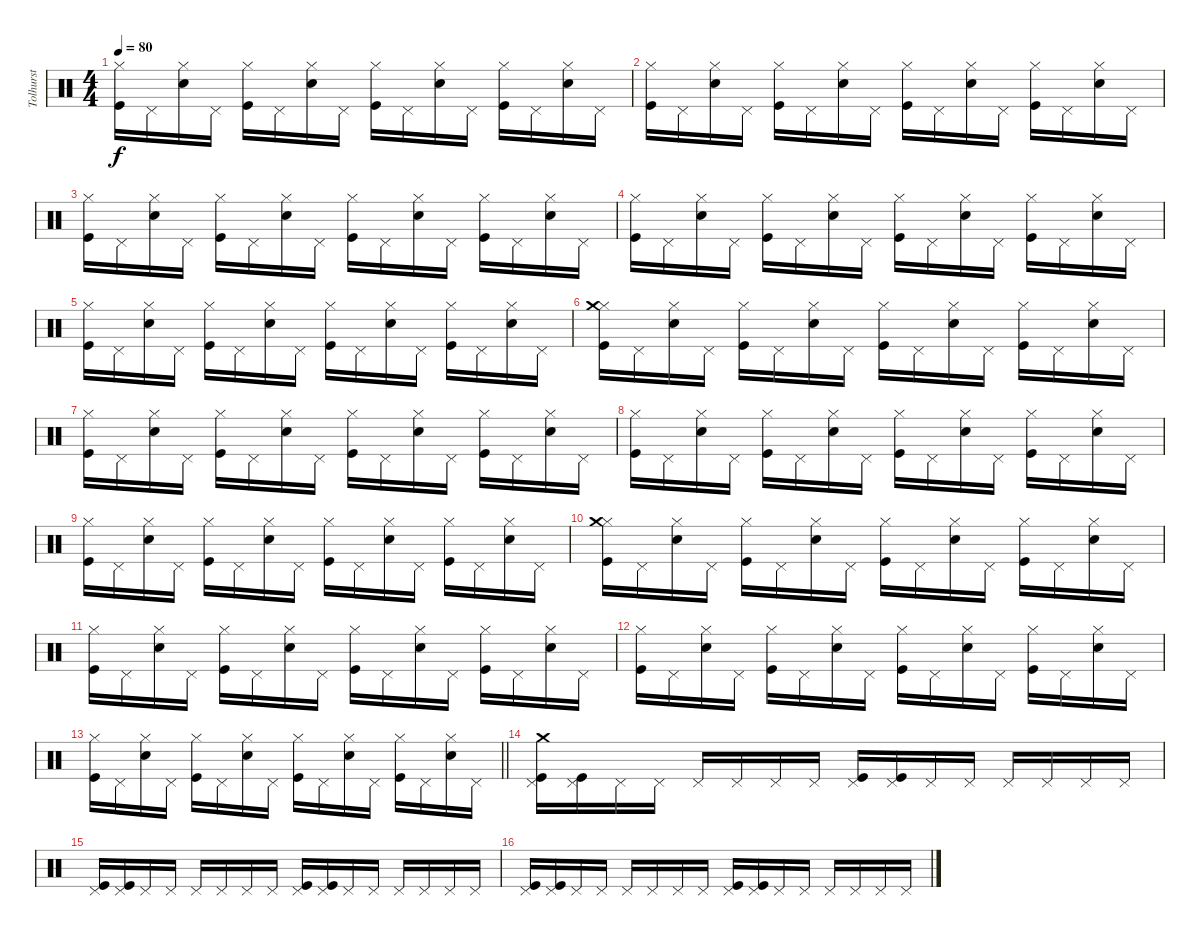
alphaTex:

\track ("Tolhurst" "Tolhurst") {instrument percussion}
\staff {score}
\articulation defaults
\ts (4 4)
\tempo 80
\clef neutral
\ks c
("Kick (hit)" "Hi-Hat (closed)").16{dy f} "Pedal Hi-Hat (hit)".16 ("Snare (hit) 2" "Hi-Hat (closed)").16 "Pedal Hi-Hat (hit)".16 ("Kick (hit)" "Hi-Hat (closed)").16 "Pedal Hi-Hat (hit)".16 ("Snare (hit) 2" "Hi-Hat (closed)").16 "Pedal Hi-Hat (hit)".16 ("Kick (hit)" "Hi-Hat (closed)").16 "Pedal Hi-Hat (hit)".16 ("Snare (hit) 2" "Hi-Hat (closed)").16 "Pedal Hi-Hat (hit)".16 ("Kick (hit)" "Hi-Hat (closed)").16 "Pedal Hi-Hat (hit)".16 ("Snare (hit) 2" "Hi-Hat (closed)").16 "Pedal Hi-Hat (hit)".16 |
("Kick (hit)" "Hi-Hat (closed)").16 "Pedal Hi-Hat (hit)".16 ("Snare (hit) 2" "Hi-Hat (closed)").16 "Pedal Hi-Hat (hit)".16 ("Kick (hit)" "Hi-Hat (closed)").16 "Pedal Hi-Hat (hit)".16 ("Snare (hit) 2" "Hi-Hat (closed)").16 "Pedal Hi-Hat (hit)".16 ("Kick (hit)" "Hi-Hat (closed)").16 "Pedal Hi-Hat (hit)".16 ("Snare (hit) 2" "Hi-Hat (closed)").16 "Pedal Hi-Hat (hit)".16 ("Kick (hit)" "Hi-Hat (closed)").16 "Pedal Hi-Hat (hit)".16 ("Snare (hit) 2" "Hi-Hat (closed)").16 "Pedal Hi-Hat (hit)".16 |
("Kick (hit)" "Hi-Hat (closed)").16 "Pedal Hi-Hat (hit)".16 ("Snare (hit) 2" "Hi-Hat (closed)").16 "Pedal Hi-Hat (hit)".16 ("Kick (hit)" "Hi-Hat (closed)").16 "Pedal Hi-Hat (hit)".16 ("Snare (hit) 2" "Hi-Hat (closed)").16 "Pedal Hi-Hat (hit)".16 ("Kick (hit)" "Hi-Hat (closed)").16 "Pedal Hi-Hat (hit)".16 ("Snare (hit) 2" "Hi-Hat (closed)").16 "Pedal Hi-Hat (hit)".16 ("Kick (hit)" "Hi-Hat (closed)").16 "Pedal Hi-Hat (hit)".16 ("Snare (hit) 2" "Hi-Hat (closed)").16 "Pedal Hi-Hat (hit)".16 |
("Kick (hit)" "Hi-Hat (closed)").16 "Pedal Hi-Hat (hit)".16 ("Snare (hit) 2" "Hi-Hat (closed)").16 "Pedal Hi-Hat (hit)".16 ("Kick (hit)" "Hi-Hat (closed)").16 "Pedal Hi-Hat (hit)".16 ("Snare (hit) 2" "Hi-Hat (closed)").16 "Pedal Hi-Hat (hit)".16 ("Kick (hit)" "Hi-Hat (closed)").16 "Pedal Hi-Hat (hit)".16 ("Snare (hit) 2" "Hi-Hat (closed)").16 "Pedal Hi-Hat (hit)".16 ("Kick (hit)" "Hi-Hat (closed)").16 "Pedal Hi-Hat (hit)".16 ("Snare (hit) 2" "Hi-Hat (closed)").16 "Pedal Hi-Hat (hit)".16 |
("Kick (hit)" "Hi-Hat (closed)").16 "Pedal Hi-Hat (hit)".16 ("Snare (hit) 2" "Hi-Hat (closed)").16 "Pedal Hi-Hat (hit)".16 ("Kick (hit)" "Hi-Hat (closed)").16 "Pedal Hi-Hat (hit)".16 ("Snare (hit) 2" "Hi-Hat (closed)").16 "Pedal Hi-Hat (hit)".16 ("Kick (hit)" "Hi-Hat (closed)").16 "Pedal Hi-Hat (hit)".16 ("Snare (hit) 2" "Hi-Hat (closed)").16 "Pedal Hi-Hat (hit)".16 ("Kick (hit)" "Hi-Hat (closed)").16 "Pedal Hi-Hat (hit)".16 ("Snare (hit) 2" "Hi-Hat (closed)").16 "Pedal Hi-Hat (hit)".16 |
("Kick (hit)" "Hi-Hat (closed)" "Crash medium (hit)").16 "Pedal Hi-Hat (hit)".16 ("Snare (hit) 2" "Hi-Hat (closed)").16 "Pedal Hi-Hat (hit)".16 ("Kick (hit)" "Hi-Hat (closed)").16 "Pedal Hi-Hat (hit)".16 ("Snare (hit) 2" "Hi-Hat (closed)").16 "Pedal Hi-Hat (hit)".16 ("Kick (hit)" "Hi-Hat (closed)").16 "Pedal Hi-Hat (hit)".16 ("Snare (hit) 2" "Hi-Hat (closed)").16 "Pedal Hi-Hat (hit)".16 ("Kick (hit)" "Hi-Hat (closed)").16 "Pedal Hi-Hat (hit)".16 ("Snare (hit) 2" "Hi-Hat (closed)").16 "Pedal Hi-Hat (hit)".16 |
("Kick (hit)" "Hi-Hat (closed)").16 "Pedal Hi-Hat (hit)".16 ("Snare (hit) 2" "Hi-Hat (closed)").16 "Pedal Hi-Hat (hit)".16 ("Kick (hit)" "Hi-Hat (closed)").16 "Pedal Hi-Hat (hit)".16 ("Snare (hit) 2" "Hi-Hat (closed)").16 "Pedal Hi-Hat (hit)".16 ("Kick (hit)" "Hi-Hat (closed)").16 "Pedal Hi-Hat (hit)".16 ("Snare (hit) 2" "Hi-Hat (closed)").16 "Pedal Hi-Hat (hit)".16 ("Kick (hit)" "Hi-Hat (closed)").16 "Pedal Hi-Hat (hit)".16 ("Snare (hit) 2" "Hi-Hat (closed)").16 "Pedal Hi-Hat (hit)".16 |
("Kick (hit)" "Hi-Hat (closed)").16 "Pedal Hi-Hat (hit)".16 ("Snare (hit) 2" "Hi-Hat (closed)").16 "Pedal Hi-Hat (hit)".16 ("Kick (hit)" "Hi-Hat (closed)").16 "Pedal Hi-Hat (hit)".16 ("Snare (hit) 2" "Hi-Hat (closed)").16 "Pedal Hi-Hat (hit)".16 ("Kick (hit)" "Hi-Hat (closed)").16 "Pedal Hi-Hat (hit)".16 ("Snare (hit) 2" "Hi-Hat (closed)").16 "Pedal Hi-Hat (hit)".16 ("Kick (hit)" "Hi-Hat (closed)").16 "Pedal Hi-Hat (hit)".16 ("Snare (hit) 2" "Hi-Hat (closed)").16 "Pedal Hi-Hat (hit)".16 |
("Kick (hit)" "Hi-Hat (closed)").16 "Pedal Hi-Hat (hit)".16 ("Snare (hit) 2" "Hi-Hat (closed)").16 "Pedal Hi-Hat (hit)".16 ("Kick (hit)" "Hi-Hat (closed)").16 "Pedal Hi-Hat (hit)".16 ("Snare (hit) 2" "Hi-Hat (closed)").16 "Pedal Hi-Hat (hit)".16 ("Kick (hit)" "Hi-Hat (closed)").16 "Pedal Hi-Hat (hit)".16 ("Snare (hit) 2" "Hi-Hat (closed)").16 "Pedal Hi-Hat (hit)".16 ("Kick (hit)" "Hi-Hat (closed)").16 "Pedal Hi-Hat (hit)".16 ("Snare (hit) 2" "Hi-Hat (closed)").16 "Pedal Hi-Hat (hit)".16 |
("Kick (hit)" "Hi-Hat (closed)" "Crash medium (hit)").16 "Pedal Hi-Hat (hit)".16 ("Snare (hit) 2" "Hi-Hat (closed)").16 "Pedal Hi-Hat (hit)".16 ("Kick (hit)" "Hi-Hat (closed)").16 "Pedal Hi-Hat (hit)".16 ("Snare (hit) 2" "Hi-Hat (closed)").16 "Pedal Hi-Hat (hit)".16 ("Kick (hit)" "Hi-Hat (closed)").16 "Pedal Hi-Hat (hit)".16 ("Snare (hit) 2" "Hi-Hat (closed)").16 "Pedal Hi-Hat (hit)".16 ("Kick (hit)" "Hi-Hat (closed)").16 "Pedal Hi-Hat (hit)".16 ("Snare (hit) 2" "Hi-Hat (closed)").16 "Pedal Hi-Hat (hit)".16 |
("Kick (hit)" "Hi-Hat (closed)").16 "Pedal Hi-Hat (hit)".16 ("Snare (hit) 2" "Hi-Hat (closed)").16 "Pedal Hi-Hat (hit)".16 ("Kick (hit)" "Hi-Hat (closed)").16 "Pedal Hi-Hat (hit)".16 ("Snare (hit) 2" "Hi-Hat (closed)").16 "Pedal Hi-Hat (hit)".16 ("Kick (hit)" "Hi-Hat (closed)").16 "Pedal Hi-Hat (hit)".16 ("Snare (hit) 2" "Hi-Hat (closed)").16 "Pedal Hi-Hat (hit)".16 ("Kick (hit)" "Hi-Hat (closed)").16 "Pedal Hi-Hat (hit)".16 ("Snare (hit) 2" "Hi-Hat (closed)").16 "Pedal Hi-Hat (hit)".16 |
("Kick (hit)" "Hi-Hat (closed)").16 "Pedal Hi-Hat (hit)".16 ("Snare (hit) 2" "Hi-Hat (closed)").16 "Pedal Hi-Hat (hit)".16 ("Kick (hit)" "Hi-Hat (closed)").16 "Pedal Hi-Hat (hit)".16 ("Snare (hit) 2" "Hi-Hat (closed)").16 "Pedal Hi-Hat (hit)".16 ("Kick (hit)" "Hi-Hat (closed)").16 "Pedal Hi-Hat (hit)".16 ("Snare (hit) 2" "Hi-Hat (closed)").16 "Pedal Hi-Hat (hit)".16 ("Kick (hit)" "Hi-Hat (closed)").16 "Pedal Hi-Hat (hit)".16 ("Snare (hit) 2" "Hi-Hat (closed)").16 "Pedal Hi-Hat (hit)".16 |
\barLineRight lightlight
("Kick (hit)" "Hi-Hat (closed)").16 "Pedal Hi-Hat (hit)".16 ("Snare (hit) 2" "Hi-Hat (closed)").16 "Pedal Hi-Hat (hit)".16 ("Kick (hit)" "Hi-Hat (closed)").16 "Pedal Hi-Hat (hit)".16 ("Snare (hit) 2" "Hi-Hat (closed)").16 "Pedal Hi-Hat (hit)".16 ("Kick (hit)" "Hi-Hat (closed)").16 "Pedal Hi-Hat (hit)".16 ("Snare (hit) 2" "Hi-Hat (closed)").16 "Pedal Hi-Hat (hit)".16 ("Kick (hit)" "Hi-Hat (closed)").16 "Pedal Hi-Hat (hit)".16 ("Snare (hit) 2" "Hi-Hat (closed)").16 "Pedal Hi-Hat (hit)".16 |
("Pedal Hi-Hat (hit)" "Kick (hit)" "Crash medium (hit)").16 ("Pedal Hi-Hat (hit)" "Kick (hit)").16 "Pedal Hi-Hat (hit)".16 "Pedal Hi-Hat (hit)".16 "Pedal Hi-Hat (hit)".16 "Pedal Hi-Hat (hit)".16 "Pedal Hi-Hat (hit)".16 "Pedal Hi-Hat (hit)".16 ("Pedal Hi-Hat (hit)" "Kick (hit)").16 ("Pedal Hi-Hat (hit)" "Kick (hit)").16 "Pedal Hi-Hat (hit)".16 "Pedal Hi-Hat (hit)".16 "Pedal Hi-Hat (hit)".16 "Pedal Hi-Hat (hit)".16 "Pedal Hi-Hat (hit)".16 "Pedal Hi-Hat (hit)".16 |
("Pedal Hi-Hat (hit)" "Kick (hit)").16 ("Pedal Hi-Hat (hit)" "Kick (hit)").16 "Pedal Hi-Hat (hit)".16 "Pedal Hi-Hat (hit)".16 "Pedal Hi-Hat (hit)".16 "Pedal Hi-Hat (hit)".16 "Pedal Hi-Hat (hit)".16 "Pedal Hi-Hat (hit)".16 ("Pedal Hi-Hat (hit)" "Kick (hit)").16 ("Pedal Hi-Hat (hit)" "Kick (hit)").16 "Pedal Hi-Hat (hit)".16 "Pedal Hi-Hat (hit)".16 "Pedal Hi-Hat (hit)".16 "Pedal Hi-Hat (hit)".16 "Pedal Hi-Hat (hit)".16 "Pedal Hi-Hat (hit)".16 |
("Pedal Hi-Hat (hit)" "Kick (hit)").16 ("Pedal Hi-Hat (hit)" "Kick (hit)").16 "Pedal Hi-Hat (hit)".16 "Pedal Hi-Hat (hit)".16 "Pedal Hi-Hat (hit)".16 "Pedal Hi-Hat (hit)".16 "Pedal Hi-Hat (hit)".16 "Pedal Hi-Hat (hit)".16 ("Pedal Hi-Hat (hit)" "Kick (hit)").16 ("Pedal Hi-Hat (hit)" "Kick (hit)").16 "Pedal Hi-Hat (hit)".16 "Pedal Hi-Hat (hit)".16 "Pedal Hi-Hat (hit)".16 "Pedal Hi-Hat (hit)".16 "Pedal Hi-Hat (hit)".16 "Pedal Hi-Hat (hit)".16
